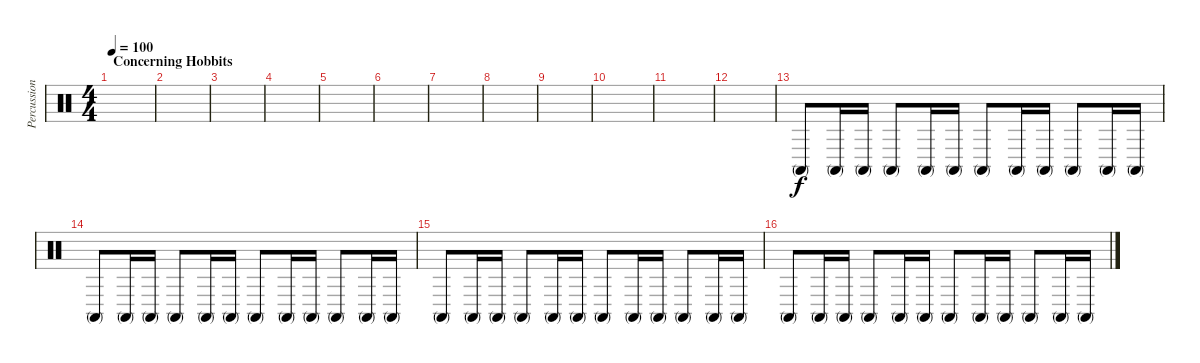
\track ("Percussioni" "Percussion") {instrument percussion}
\staff {score}
\articulation defaults
\ts (4 4)
\section ("" "Concerning Hobbits")
\tempo 100
\clef neutral
\ks c
|
|
|
|
|
|
|
|
|
|
|
|
"Conga high (mute)".8 "Conga high (mute)".16 "Conga high (mute)".16 "Conga high (mute)".8 "Conga high (mute)".16 "Conga high (mute)".16 "Conga high (mute)".8 "Conga high (mute)".16 "Conga high (mute)".16 "Conga high (mute)".8 "Conga high (mute)".16 "Conga high (mute)".16 |
"Conga high (mute)".8 "Conga high (mute)".16 "Conga high (mute)".16 "Conga high (mute)".8 "Conga high (mute)".16 "Conga high (mute)".16 "Conga high (mute)".8 "Conga high (mute)".16 "Conga high (mute)".16 "Conga high (mute)".8 "Conga high (mute)".16 "Conga high (mute)".16 |
"Conga high (mute)".8 "Conga high (mute)".16 "Conga high (mute)".16 "Conga high (mute)".8 "Conga high (mute)".16 "Conga high (mute)".16 "Conga high (mute)".8 "Conga high (mute)".16 "Conga high (mute)".16 "Conga high (mute)".8 "Conga high (mute)".16 "Conga high (mute)".16 |
"Conga high (mute)".8 "Conga high (mute)".16 "Conga high (mute)".16 "Conga high (mute)".8 "Conga high (mute)".16 "Conga high (mute)".16 "Conga high (mute)".8 "Conga high (mute)".16 "Conga high (mute)".16 "Conga high (mute)".8 "Conga high (mute)".16 "Conga high (mute)".16
